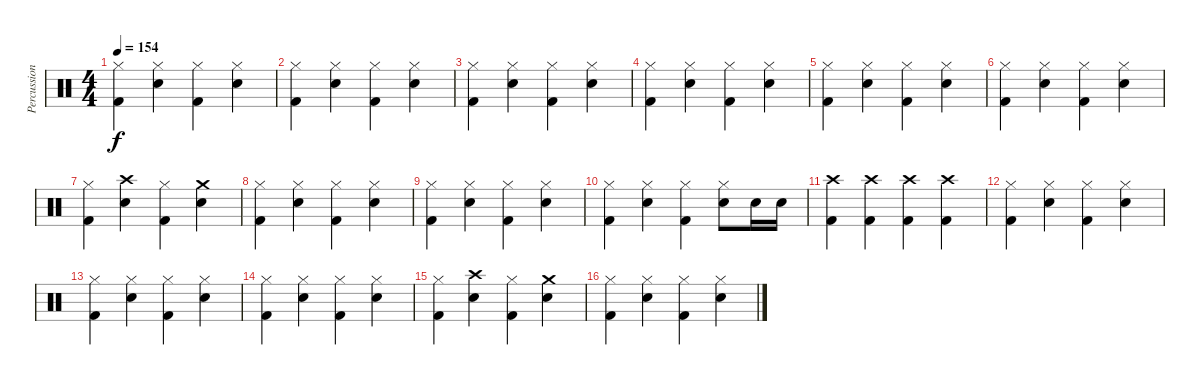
\track ("Percussion" "Percussion") {instrument percussion}
\staff {score}
\articulation defaults
\ts (4 4)
\tempo 154
\clef neutral
\ks c
("Hi-Hat (closed)" "Kick (hit) 2").4{dy f} ("Hi-Hat (closed)" "Snare (hit) 2").4 ("Hi-Hat (closed)" "Kick (hit) 2").4 ("Hi-Hat (closed)" "Snare (hit) 2").4 |
("Hi-Hat (closed)" "Kick (hit) 2").4 ("Hi-Hat (closed)" "Snare (hit) 2").4 ("Hi-Hat (closed)" "Kick (hit) 2").4 ("Hi-Hat (closed)" "Snare (hit) 2").4 |
("Hi-Hat (closed)" "Kick (hit) 2").4 ("Hi-Hat (closed)" "Snare (hit) 2").4 ("Hi-Hat (closed)" "Kick (hit) 2").4 ("Hi-Hat (closed)" "Snare (hit) 2").4 |
("Hi-Hat (closed)" "Kick (hit) 2").4 ("Hi-Hat (closed)" "Snare (hit) 2").4 ("Hi-Hat (closed)" "Kick (hit) 2").4 ("Hi-Hat (closed)" "Snare (hit) 2").4 |
("Hi-Hat (closed)" "Kick (hit) 2").4 ("Hi-Hat (closed)" "Snare (hit) 2").4 ("Hi-Hat (closed)" "Kick (hit) 2").4 ("Hi-Hat (closed)" "Snare (hit) 2").4 |
("Hi-Hat (closed)" "Kick (hit) 2").4 ("Hi-Hat (closed)" "Snare (hit) 2").4 ("Hi-Hat (closed)" "Kick (hit) 2").4 ("Hi-Hat (closed)" "Snare (hit) 2").4 |
("Hi-Hat (closed)" "Kick (hit) 2").4 ("Crash high (hit)" "Snare (hit) 2").4 ("Hi-Hat (closed)" "Kick (hit) 2").4 ("Crash medium (hit)" "Snare (hit) 2").4 |
("Hi-Hat (closed)" "Kick (hit) 2").4 ("Hi-Hat (closed)" "Snare (hit) 2").4 ("Hi-Hat (closed)" "Kick (hit) 2").4 ("Hi-Hat (closed)" "Snare (hit) 2").4 |
("Hi-Hat (closed)" "Kick (hit) 2").4 ("Hi-Hat (closed)" "Snare (hit) 2").4 ("Hi-Hat (closed)" "Kick (hit) 2").4 ("Hi-Hat (closed)" "Snare (hit) 2").4 |
("Hi-Hat (closed)" "Kick (hit) 2").4 ("Hi-Hat (closed)" "Snare (hit) 2").4 ("Hi-Hat (closed)" "Kick (hit) 2").4 ("Hi-Hat (closed)" "Snare (hit) 2").8 "Snare (hit) 2".16 "Snare (hit) 2".16 |
("Crash high (hit)" "Kick (hit) 2").4 ("Crash high (hit)" "Kick (hit) 2").4 ("Crash high (hit)" "Kick (hit) 2").4 ("Crash high (hit)" "Kick (hit) 2").4 |
("Hi-Hat (closed)" "Kick (hit) 2").4 ("Hi-Hat (closed)" "Snare (hit) 2").4 ("Hi-Hat (closed)" "Kick (hit) 2").4 ("Hi-Hat (closed)" "Snare (hit) 2").4 |
("Hi-Hat (closed)" "Kick (hit) 2").4 ("Hi-Hat (closed)" "Snare (hit) 2").4 ("Hi-Hat (closed)" "Kick (hit) 2").4 ("Hi-Hat (closed)" "Snare (hit) 2").4 |
("Hi-Hat (closed)" "Kick (hit) 2").4 ("Hi-Hat (closed)" "Snare (hit) 2").4 ("Hi-Hat (closed)" "Kick (hit) 2").4 ("Hi-Hat (closed)" "Snare (hit) 2").4 |
("Hi-Hat (closed)" "Kick (hit) 2").4 ("Crash high (hit)" "Snare (hit) 2").4 ("Hi-Hat (closed)" "Kick (hit) 2").4 ("Crash medium (hit)" "Snare (hit) 2").4 |
("Hi-Hat (closed)" "Kick (hit) 2").4 ("Hi-Hat (closed)" "Snare (hit) 2").4 ("Hi-Hat (closed)" "Kick (hit) 2").4 ("Hi-Hat (closed)" "Snare (hit) 2").4
